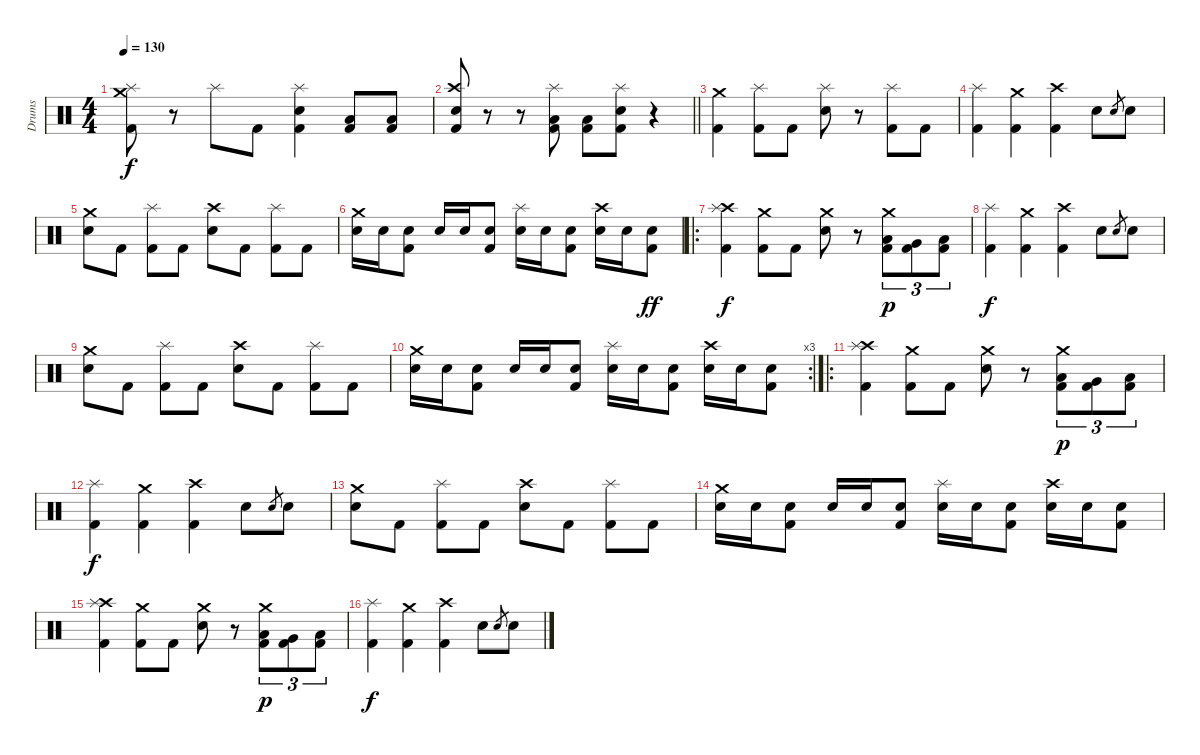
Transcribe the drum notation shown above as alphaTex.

\track ("Drums" "Drums") {instrument percussion}
\staff {score}
\articulation defaults
\ts (4 4)
\tempo 130
\clef neutral
\ks c
("Crash medium (hit)" "Splash (hit)" "Kick (hit) 2").8{dy f} r.8 "Splash (hit)".8 "Kick (hit) 2".8 ("Splash (hit)" "Electric Snare (hit)" "Kick (hit) 2").4 ("Low Floor Tom (hit)" "Kick (hit) 2").8 ("Low Floor Tom (hit)" "Kick (hit) 2").8 |
\barLineRight lightlight
("Crash high (hit)" "Snare (hit) 2" "Kick (hit) 2").8 r.8 r.8 ("Splash (hit)" "Low Floor Tom (hit)" "Kick (hit) 2").8 ("Low Floor Tom (hit)" "Kick (hit) 2").8 ("Splash (hit)" "Electric Snare (hit)" "Kick (hit) 2").8 r.4 |
("Crash medium (hit)" "Kick (hit) 2").4 ("Splash (hit)" "Kick (hit) 2").8 "Kick (hit) 2".8 ("Splash (hit)" "Electric Snare (hit)").8 r.8 ("Splash (hit)" "Kick (hit) 2").8 "Kick (hit) 2".8 |
("Splash (hit)" "Kick (hit) 2").4 ("Crash medium (hit)" "Kick (hit) 2").4 ("Crash high (hit)" "Kick (hit) 2").4 "Electric Snare (hit)".8 "Electric Snare (hit)".8{gr} "Electric Snare (hit)".8 |
("Crash medium (hit)" "Electric Snare (hit)").8 "Kick (hit) 2".8 ("Splash (hit)" "Kick (hit) 2").8 "Kick (hit) 2".8 ("Crash high (hit)" "Electric Snare (hit)").8 "Kick (hit) 2".8 ("Splash (hit)" "Kick (hit) 2").8 "Kick (hit) 2".8 |
("Crash medium (hit)" "Electric Snare (hit)").16 "Electric Snare (hit)".16 ("Electric Snare (hit)" "Kick (hit) 2").8 "Electric Snare (hit)".16 "Electric Snare (hit)".16 ("Electric Snare (hit)" "Kick (hit) 2").8 ("Splash (hit)" "Electric Snare (hit)").16 "Electric Snare (hit)".16 ("Electric Snare (hit)" "Kick (hit) 2").8 ("Crash high (hit)" "Electric Snare (hit)").16 "Electric Snare (hit)".16 ("Electric Snare (hit)" "Kick (hit) 2").8{dy ff} |
\ro
("Crash high (hit)" "Splash (hit)" "Kick (hit) 2").4{dy f} ("Crash medium (hit)" "Kick (hit) 2").8 "Kick (hit) 2".8 ("Crash medium (hit)" "Electric Snare (hit)").8 r.8 ("Crash medium (hit)" "Low Tom (hit)" "Kick (hit) 2").8{tu (3 2) dy p} ("Very Low Tom (hit)" "Kick (hit) 2").8{tu (3 2)} ("Low Floor Tom (hit)" "Kick (hit) 2").8{tu (3 2)} |
("Splash (hit)" "Kick (hit) 2").4{dy f} ("Crash medium (hit)" "Kick (hit) 2").4 ("Crash high (hit)" "Kick (hit) 2").4 "Electric Snare (hit)".8 "Electric Snare (hit)".8{gr} "Electric Snare (hit)".8 |
("Crash medium (hit)" "Electric Snare (hit)").8 "Kick (hit) 2".8 ("Splash (hit)" "Kick (hit) 2").8 "Kick (hit) 2".8 ("Crash high (hit)" "Electric Snare (hit)").8 "Kick (hit) 2".8 ("Splash (hit)" "Kick (hit) 2").8 "Kick (hit) 2".8 |
\rc 3
("Crash medium (hit)" "Electric Snare (hit)").16 "Electric Snare (hit)".16 ("Electric Snare (hit)" "Kick (hit) 2").8 "Electric Snare (hit)".16 "Electric Snare (hit)".16 ("Electric Snare (hit)" "Kick (hit) 2").8 ("Splash (hit)" "Electric Snare (hit)").16 "Electric Snare (hit)".16 ("Electric Snare (hit)" "Kick (hit) 2").8 ("Crash high (hit)" "Electric Snare (hit)").16 "Electric Snare (hit)".16 ("Electric Snare (hit)" "Kick (hit) 2").8 |
\ro
("Crash high (hit)" "Splash (hit)" "Kick (hit) 2").4 ("Crash medium (hit)" "Kick (hit) 2").8 "Kick (hit) 2".8 ("Crash medium (hit)" "Electric Snare (hit)").8 r.8 ("Crash medium (hit)" "Low Tom (hit)" "Kick (hit) 2").8{tu (3 2) dy p} ("Very Low Tom (hit)" "Kick (hit) 2").8{tu (3 2)} ("Low Floor Tom (hit)" "Kick (hit) 2").8{tu (3 2)} |
("Splash (hit)" "Kick (hit) 2").4{dy f} ("Crash medium (hit)" "Kick (hit) 2").4 ("Crash high (hit)" "Kick (hit) 2").4 "Electric Snare (hit)".8 "Electric Snare (hit)".8{gr} "Electric Snare (hit)".8 |
("Crash medium (hit)" "Electric Snare (hit)").8 "Kick (hit) 2".8 ("Splash (hit)" "Kick (hit) 2").8 "Kick (hit) 2".8 ("Crash high (hit)" "Electric Snare (hit)").8 "Kick (hit) 2".8 ("Splash (hit)" "Kick (hit) 2").8 "Kick (hit) 2".8 |
("Crash medium (hit)" "Electric Snare (hit)").16 "Electric Snare (hit)".16 ("Electric Snare (hit)" "Kick (hit) 2").8 "Electric Snare (hit)".16 "Electric Snare (hit)".16 ("Electric Snare (hit)" "Kick (hit) 2").8 ("Splash (hit)" "Electric Snare (hit)").16 "Electric Snare (hit)".16 ("Electric Snare (hit)" "Kick (hit) 2").8 ("Crash high (hit)" "Electric Snare (hit)").16 "Electric Snare (hit)".16 ("Electric Snare (hit)" "Kick (hit) 2").8 |
("Crash high (hit)" "Splash (hit)" "Kick (hit) 2").4 ("Crash medium (hit)" "Kick (hit) 2").8 "Kick (hit) 2".8 ("Crash medium (hit)" "Electric Snare (hit)").8 r.8 ("Crash medium (hit)" "Low Tom (hit)" "Kick (hit) 2").8{tu (3 2) dy p} ("Very Low Tom (hit)" "Kick (hit) 2").8{tu (3 2)} ("Low Floor Tom (hit)" "Kick (hit) 2").8{tu (3 2)} |
("Splash (hit)" "Kick (hit) 2").4{dy f} ("Crash medium (hit)" "Kick (hit) 2").4 ("Crash high (hit)" "Kick (hit) 2").4 "Electric Snare (hit)".8 "Electric Snare (hit)".8{gr} "Electric Snare (hit)".8
